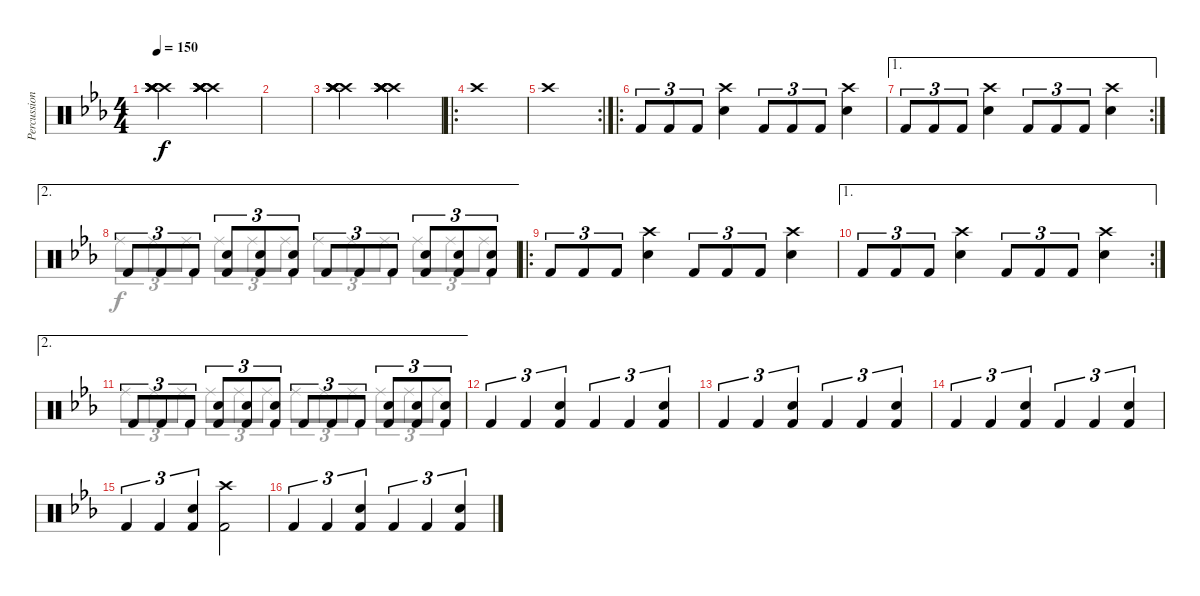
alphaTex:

\track ("Percussion" "Percussion") {instrument percussion}
\staff {score}
\articulation defaults
\voice
\ts (4 4)
\tempo 150
\clef neutral
\ks cminor
("Crash high (hit)" "Crash high (hit)" "Crash high (hit)" "Crash high (hit)" "Crash high (hit)" "Crash high (hit)").2{dy f} ("Crash high (hit)" "Crash high (hit)" "Crash high (hit)" "Crash high (hit)" "Crash high (hit)" "Crash high (hit)").2 |
|
("Crash high (hit)" "Crash high (hit)" "Crash high (hit)" "Crash high (hit)" "Crash high (hit)" "Crash high (hit)").2 ("Crash high (hit)" "Crash high (hit)" "Crash high (hit)" "Crash high (hit)" "Crash high (hit)" "Crash high (hit)").2 |
\ro "Crash high (hit)".1
|
\rc 2 "Crash high (hit)".1
|
\ro "Kick (hit) 2".8{tu (3 2)} "Kick (hit) 2".8{tu (3 2)} "Kick (hit) 2".8{tu (3 2)}
("Crash high (hit)" "Snare (hit) 2").4 "Kick (hit) 2".8{tu (3 2)} "Kick (hit) 2".8{tu (3 2)} "Kick (hit) 2".8{tu (3 2)} ("Crash high (hit)" "Snare (hit) 2").4 |
\ae 1
\rc 2 "Kick (hit) 2".8{tu (3 2)} "Kick (hit) 2".8{tu (3 2)} "Kick (hit) 2".8{tu (3 2)}
("Crash high (hit)" "Snare (hit) 2").4 "Kick (hit) 2".8{tu (3 2)} "Kick (hit) 2".8{tu (3 2)} "Kick (hit) 2".8{tu (3 2)} ("Crash high (hit)" "Snare (hit) 2").4 |
\ae 2 "Kick (hit) 2".8{tu (3 2)} "Kick (hit) 2".8{tu (3 2)} "Kick (hit) 2".8{tu (3 2)}
("Snare (hit) 2" "Kick (hit) 2").8{tu (3 2)} ("Snare (hit) 2" "Kick (hit) 2").8{tu (3 2)} ("Snare (hit) 2" "Kick (hit) 2").8{tu (3 2)} "Kick (hit) 2".8{tu (3 2)} "Kick (hit) 2".8{tu (3 2)} "Kick (hit) 2".8{tu (3 2)} ("Snare (hit) 2" "Kick (hit) 2").8{tu (3 2)} ("Snare (hit) 2" "Kick (hit) 2").8{tu (3 2)} ("Snare (hit) 2" "Kick (hit) 2").8{tu (3 2)} |
\ro "Kick (hit) 2".8{tu (3 2)} "Kick (hit) 2".8{tu (3 2)} "Kick (hit) 2".8{tu (3 2)}
("Crash high (hit)" "Snare (hit) 2").4 "Kick (hit) 2".8{tu (3 2)} "Kick (hit) 2".8{tu (3 2)} "Kick (hit) 2".8{tu (3 2)} ("Crash high (hit)" "Snare (hit) 2").4 |
\ae 1
\rc 2 "Kick (hit) 2".8{tu (3 2)} "Kick (hit) 2".8{tu (3 2)} "Kick (hit) 2".8{tu (3 2)}
("Crash high (hit)" "Snare (hit) 2").4 "Kick (hit) 2".8{tu (3 2)} "Kick (hit) 2".8{tu (3 2)} "Kick (hit) 2".8{tu (3 2)} ("Crash high (hit)" "Snare (hit) 2").4 |
\ae 2 "Kick (hit) 2".8{tu (3 2)} "Kick (hit) 2".8{tu (3 2)} "Kick (hit) 2".8{tu (3 2)}
("Snare (hit) 2" "Kick (hit) 2").8{tu (3 2)} ("Snare (hit) 2" "Kick (hit) 2").8{tu (3 2)} ("Snare (hit) 2" "Kick (hit) 2").8{tu (3 2)} "Kick (hit) 2".8{tu (3 2)} "Kick (hit) 2".8{tu (3 2)} "Kick (hit) 2".8{tu (3 2)} ("Snare (hit) 2" "Kick (hit) 2").8{tu (3 2)} ("Snare (hit) 2" "Kick (hit) 2").8{tu (3 2)} ("Snare (hit) 2" "Kick (hit) 2").8{tu (3 2)} |
"Kick (hit) 2".4{tu (3 2)} "Kick (hit) 2".4{tu (3 2)} ("Snare (hit) 2" "Kick (hit) 2").4{tu (3 2)} "Kick (hit) 2".4{tu (3 2)} "Kick (hit) 2".4{tu (3 2)} ("Snare (hit) 2" "Kick (hit) 2").4{tu (3 2)} |
"Kick (hit) 2".4{tu (3 2)} "Kick (hit) 2".4{tu (3 2)} ("Snare (hit) 2" "Kick (hit) 2").4{tu (3 2)} "Kick (hit) 2".4{tu (3 2)} "Kick (hit) 2".4{tu (3 2)} ("Snare (hit) 2" "Kick (hit) 2").4{tu (3 2)} |
"Kick (hit) 2".4{tu (3 2)} "Kick (hit) 2".4{tu (3 2)} ("Snare (hit) 2" "Kick (hit) 2").4{tu (3 2)} "Kick (hit) 2".4{tu (3 2)} "Kick (hit) 2".4{tu (3 2)} ("Snare (hit) 2" "Kick (hit) 2").4{tu (3 2)} |
"Kick (hit) 2".4{tu (3 2)} "Kick (hit) 2".4{tu (3 2)} ("Snare (hit) 2" "Kick (hit) 2").4{tu (3 2)} ("Crash high (hit)" "Kick (hit) 2").2 |
"Kick (hit) 2".4{tu (3 2)} "Kick (hit) 2".4{tu (3 2)} ("Snare (hit) 2" "Kick (hit) 2").4{tu (3 2)} "Kick (hit) 2".4{tu (3 2)} "Kick (hit) 2".4{tu (3 2)} ("Snare (hit) 2" "Kick (hit) 2").4{tu (3 2)}
\voice
\clef neutral
\ottava regular
\simile none
\ks cminor
|
|
|
|
|
|
|
"Ride (middle)".8{tu (3 2)} "Ride (middle)".8{tu (3 2)} "Ride (middle)".8{tu (3 2)} "Ride (middle)".8{tu (3 2)} "Ride (middle)".8{tu (3 2)} "Ride (middle)".8{tu (3 2)} "Ride (middle)".8{tu (3 2)} "Ride (middle)".8{tu (3 2)} "Ride (middle)".8{tu (3 2)} "Ride (middle)".8{tu (3 2)} "Ride (middle)".8{tu (3 2)} "Ride (middle)".8{tu (3 2)} |
|
|
"Ride (middle)".8{tu (3 2)} "Ride (middle)".8{tu (3 2)} "Ride (middle)".8{tu (3 2)} "Ride (middle)".8{tu (3 2)} "Ride (middle)".8{tu (3 2)} "Ride (middle)".8{tu (3 2)} "Ride (middle)".8{tu (3 2)} "Ride (middle)".8{tu (3 2)} "Ride (middle)".8{tu (3 2)} "Ride (middle)".8{tu (3 2)} "Ride (middle)".8{tu (3 2)} "Ride (middle)".8{tu (3 2)} |
|
|
|
|
